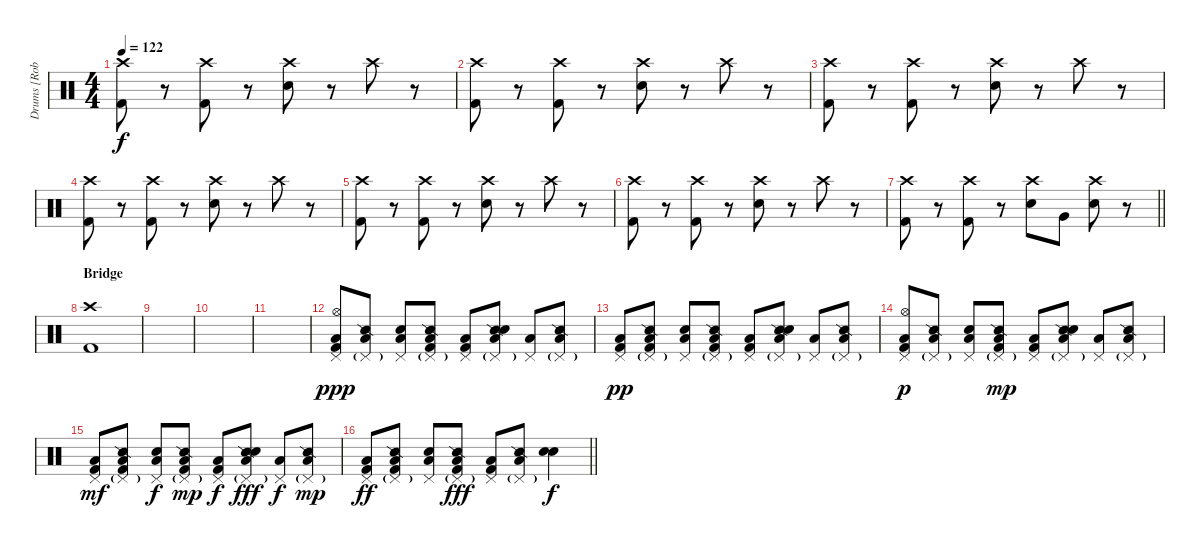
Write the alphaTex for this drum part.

\track ("Drums [Rob Bourdon]" "Drums [Rob") {solo instrument percussion}
\staff {score}
\articulation defaults
\ts (4 4)
\tempo 122
\clef neutral
\ks c
("Crash high (hit)" "Kick (hit) 2").8{dy f} r.8 ("Crash high (hit)" "Kick (hit) 2").8 r.8 ("Crash high (hit)" "Electric Snare (hit)").8 r.8 "Crash high (hit)".8 r.8 |
("Crash high (hit)" "Kick (hit) 2").8 r.8 ("Crash high (hit)" "Kick (hit) 2").8 r.8 ("Crash high (hit)" "Electric Snare (hit)").8 r.8 "Crash high (hit)".8 r.8 |
("Crash high (hit)" "Kick (hit) 2").8 r.8 ("Crash high (hit)" "Kick (hit) 2").8 r.8 ("Crash high (hit)" "Electric Snare (hit)").8 r.8 "Crash high (hit)".8 r.8 |
("Crash high (hit)" "Kick (hit) 2").8 r.8 ("Crash high (hit)" "Kick (hit) 2").8 r.8 ("Crash high (hit)" "Electric Snare (hit)").8 r.8 "Crash high (hit)".8 r.8 |
("Crash high (hit)" "Kick (hit) 2").8 r.8 ("Crash high (hit)" "Kick (hit) 2").8 r.8 ("Crash high (hit)" "Electric Snare (hit)").8 r.8 "Crash high (hit)".8 r.8 |
("Crash high (hit)" "Kick (hit) 2").8 r.8 ("Crash high (hit)" "Kick (hit) 2").8 r.8 ("Crash high (hit)" "Electric Snare (hit)").8 r.8 "Crash high (hit)".8 r.8 |
\barLineRight lightlight
("Crash high (hit)" "Kick (hit) 2").8 r.8 ("Crash high (hit)" "Kick (hit) 2").8 r.8 ("Crash high (hit)" "Electric Snare (hit)").8 "Very Low Tom (hit)".8 ("Crash high (hit)" "Electric Snare (hit)").8 r.8 |
\section ("" "Bridge")
("Crash high (hit)" "Kick (hit) 2").1 |
|
|
|
("Pedal Hi-Hat (hit)" "Hi-Hat (open)" "Low Tom (hit)" "Kick (hit) 2").8{dy ppp} ("Snare (side stick) 2" "Pedal Hi-Hat (hit)"{g} "Low Tom (hit)").8 ("Pedal Hi-Hat (hit)" "Low Tom (hit)" "Electric Snare (hit)").8 ("Snare (side stick) 2" "Pedal Hi-Hat (hit)"{g} "Low Tom (hit)" "Kick (hit) 2").8 ("Pedal Hi-Hat (hit)" "Low Tom (hit)" "Kick (hit) 2").8 ("Snare (side stick) 2" "Pedal Hi-Hat (hit)"{g} "Low Tom (hit)" "Electric Snare (hit)").8 ("Pedal Hi-Hat (hit)" "Low Tom (hit)").8 ("Snare (side stick) 2" "Pedal Hi-Hat (hit)"{g} "Low Tom (hit)").8 |
("Pedal Hi-Hat (hit)" "Low Tom (hit)" "Kick (hit) 2").8{dy pp} ("Snare (side stick) 2" "Pedal Hi-Hat (hit)"{g} "Low Tom (hit)" "Kick (hit) 2").8 ("Pedal Hi-Hat (hit)" "Low Tom (hit)" "Electric Snare (hit)").8 ("Snare (side stick) 2" "Pedal Hi-Hat (hit)"{g} "Low Tom (hit)" "Kick (hit) 2").8 ("Pedal Hi-Hat (hit)" "Low Tom (hit)" "Kick (hit) 2").8 ("Snare (side stick) 2" "Pedal Hi-Hat (hit)"{g} "Low Tom (hit)" "Electric Snare (hit)").8 ("Pedal Hi-Hat (hit)" "Low Tom (hit)").8 ("Snare (side stick) 2" "Pedal Hi-Hat (hit)"{g} "Low Tom (hit)").8 |
("Pedal Hi-Hat (hit)" "Hi-Hat (open)" "Low Tom (hit)" "Kick (hit) 2").8{dy p} ("Snare (side stick) 2" "Pedal Hi-Hat (hit)"{g} "Low Tom (hit)").8 ("Pedal Hi-Hat (hit)" "Low Tom (hit)" "Electric Snare (hit)").8 ("Snare (side stick) 2" "Pedal Hi-Hat (hit)"{g} "Low Tom (hit)" "Kick (hit) 2").8{dy mp} ("Pedal Hi-Hat (hit)" "Low Tom (hit)" "Kick (hit) 2").8 ("Snare (side stick) 2" "Pedal Hi-Hat (hit)"{g} "Low Tom (hit)" "Electric Snare (hit)").8 ("Pedal Hi-Hat (hit)" "Low Tom (hit)").8 ("Snare (side stick) 2" "Pedal Hi-Hat (hit)"{g} "Low Tom (hit)").8 |
("Pedal Hi-Hat (hit)" "Low Tom (hit)" "Kick (hit) 2").8{dy mf} ("Snare (side stick) 2" "Pedal Hi-Hat (hit)"{g} "Low Tom (hit)" "Kick (hit) 2").8 ("Pedal Hi-Hat (hit)" "Low Tom (hit)" "Electric Snare (hit)").8{dy f} ("Snare (side stick) 2" "Pedal Hi-Hat (hit)"{g} "Low Tom (hit)" "Kick (hit) 2").8{dy mp} ("Pedal Hi-Hat (hit)" "Low Tom (hit)" "Kick (hit) 2").8{dy f} ("Snare (side stick) 2" "Pedal Hi-Hat (hit)"{g} "Low Tom (hit)" "Electric Snare (hit)").8{dy fff} ("Pedal Hi-Hat (hit)" "Low Tom (hit)").8{dy f} ("Snare (side stick) 2" "Pedal Hi-Hat (hit)"{g} "Low Tom (hit)").8{dy mp} |
\barLineRight lightlight
("Pedal Hi-Hat (hit)" "Low Tom (hit)" "Kick (hit) 2").8{dy ff} ("Snare (side stick) 2" "Pedal Hi-Hat (hit)"{g} "Low Tom (hit)" "Kick (hit) 2").8 ("Pedal Hi-Hat (hit)" "Low Tom (hit)" "Electric Snare (hit)").8 ("Snare (side stick) 2" "Pedal Hi-Hat (hit)"{g} "Low Tom (hit)" "Kick (hit) 2").8{dy fff} ("Pedal Hi-Hat (hit)" "Low Tom (hit)" "Kick (hit) 2").8 ("Snare (side stick) 2" "Pedal Hi-Hat (hit)"{g} "Low Tom (hit)").8 ("Electric Snare (hit)" "Electric Snare (hit)").4{dy f}
